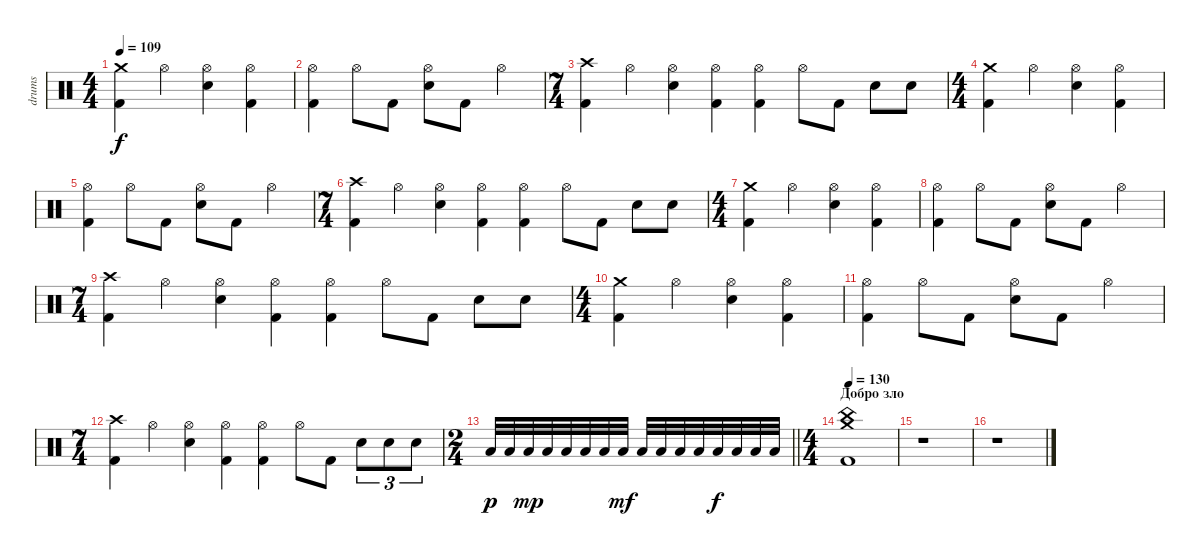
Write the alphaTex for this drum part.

\track ("drums" "drums") {instrument percussion}
\staff {score}
\articulation defaults
\ts (4 4)
\tempo 109
\clef neutral
\ks c
("Crash medium (hit)" "Kick (hit) 2").4{dy f} "Hi-Hat (open)".4 ("Electric Snare (hit)" "Hi-Hat (open)").4 ("Kick (hit) 2" "Hi-Hat (open)").4 |
("Hi-Hat (open)" "Kick (hit) 2").4 "Hi-Hat (open)".8 "Kick (hit) 2".8 ("Hi-Hat (open)" "Electric Snare (hit)").8 "Kick (hit) 2".8 "Hi-Hat (open)".4 |
\ts (7 4)
("Kick (hit) 2" "Crash high (hit)").4 "Hi-Hat (open)".4 ("Electric Snare (hit)" "Hi-Hat (open)").4 ("Kick (hit) 2" "Hi-Hat (open)").4 ("Hi-Hat (open)" "Kick (hit) 2").4 "Hi-Hat (open)".8 "Kick (hit) 2".8 "Electric Snare (hit)".8 "Electric Snare (hit)".8 |
\ts (4 4)
("Crash medium (hit)" "Kick (hit) 2").4 "Hi-Hat (open)".4 ("Electric Snare (hit)" "Hi-Hat (open)").4 ("Kick (hit) 2" "Hi-Hat (open)").4 |
("Hi-Hat (open)" "Kick (hit) 2").4 "Hi-Hat (open)".8 "Kick (hit) 2".8 ("Hi-Hat (open)" "Electric Snare (hit)").8 "Kick (hit) 2".8 "Hi-Hat (open)".4 |
\ts (7 4)
("Kick (hit) 2" "Crash high (hit)").4 "Hi-Hat (open)".4 ("Electric Snare (hit)" "Hi-Hat (open)").4 ("Kick (hit) 2" "Hi-Hat (open)").4 ("Hi-Hat (open)" "Kick (hit) 2").4 "Hi-Hat (open)".8 "Kick (hit) 2".8 "Electric Snare (hit)".8 "Electric Snare (hit)".8 |
\ts (4 4)
("Crash medium (hit)" "Kick (hit) 2").4 "Hi-Hat (open)".4 ("Electric Snare (hit)" "Hi-Hat (open)").4 ("Kick (hit) 2" "Hi-Hat (open)").4 |
("Hi-Hat (open)" "Kick (hit) 2").4 "Hi-Hat (open)".8 "Kick (hit) 2".8 ("Hi-Hat (open)" "Electric Snare (hit)").8 "Kick (hit) 2".8 "Hi-Hat (open)".4 |
\ts (7 4)
("Kick (hit) 2" "Crash high (hit)").4 "Hi-Hat (open)".4 ("Electric Snare (hit)" "Hi-Hat (open)").4 ("Kick (hit) 2" "Hi-Hat (open)").4 ("Hi-Hat (open)" "Kick (hit) 2").4 "Hi-Hat (open)".8 "Kick (hit) 2".8 "Electric Snare (hit)".8 "Electric Snare (hit)".8 |
\ts (4 4)
("Crash medium (hit)" "Kick (hit) 2").4 "Hi-Hat (open)".4 ("Electric Snare (hit)" "Hi-Hat (open)").4 ("Kick (hit) 2" "Hi-Hat (open)").4 |
("Hi-Hat (open)" "Kick (hit) 2").4 "Hi-Hat (open)".8 "Kick (hit) 2".8 ("Hi-Hat (open)" "Electric Snare (hit)").8 "Kick (hit) 2".8 "Hi-Hat (open)".4 |
\ts (7 4)
("Kick (hit) 2" "Crash high (hit)").4 "Hi-Hat (open)".4 ("Electric Snare (hit)" "Hi-Hat (open)").4 ("Kick (hit) 2" "Hi-Hat (open)").4 ("Hi-Hat (open)" "Kick (hit) 2").4 "Hi-Hat (open)".8 "Kick (hit) 2".8 "Electric Snare (hit)".8{tu (3 2)} "Electric Snare (hit)".8{tu (3 2)} "Electric Snare (hit)".8{tu (3 2)} |
\ts (2 4)
\barLineRight lightlight "Low Floor Tom (hit)".32{dy p} "Low Floor Tom (hit)".32 "Low Floor Tom (hit)".32{dy mp} "Low Floor Tom (hit)".32 "Low Floor Tom (hit)".32 "Low Floor Tom (hit)".32 "Low Floor Tom (hit)".32 "Low Floor Tom (hit)".32{dy mf} "Low Floor Tom (hit)".32 "Low Floor Tom (hit)".32 "Low Floor Tom (hit)".32 "Low Floor Tom (hit)".32 "Low Floor Tom (hit)".32{dy f} "Low Floor Tom (hit)".32 "Low Floor Tom (hit)".32 "Low Floor Tom (hit)".32
|
\ts (4 4)
\section ("" "Добро зло")
\tempo 130
("Crash medium (hit)" "China (hit)" "Kick (hit) 2").1 |
r.1 |
r.1
